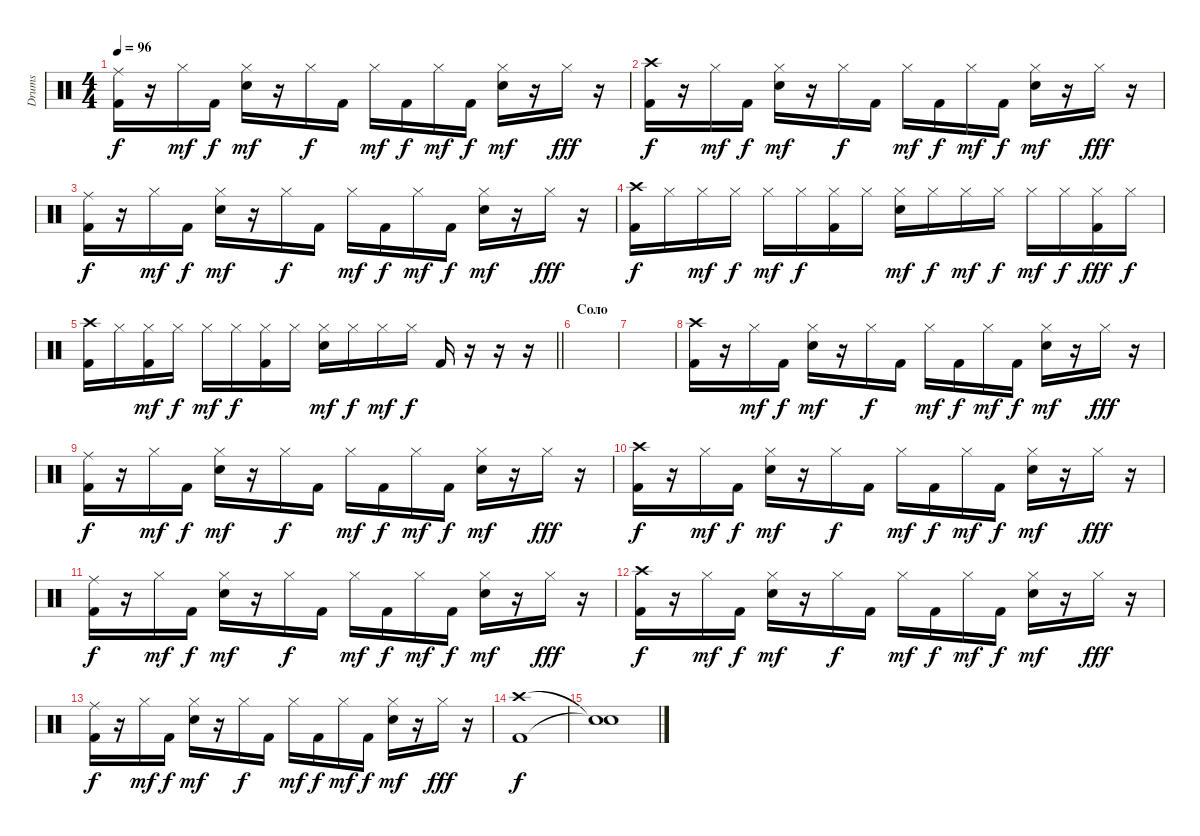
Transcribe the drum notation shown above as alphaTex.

\track ("Drums" "Drums") {instrument percussion}
\staff {score}
\articulation defaults
\ts (4 4)
\tempo 96
\clef neutral
\ks c
("Ride (middle)" "Kick (hit) 2").16{dy f} r.16 "Hi-Hat (closed)".16{dy mf} "Kick (hit) 2".16{dy f} ("Hi-Hat (closed)" "Electric Snare (hit)").16{dy mf} r.16 "Hi-Hat (closed)".16{dy f} "Kick (hit) 2".16 "Hi-Hat (closed)".16{dy mf} "Kick (hit) 2".16{dy f} "Hi-Hat (closed)".16{dy mf} "Kick (hit) 2".16{dy f} ("Hi-Hat (closed)" "Electric Snare (hit)").16{dy mf} r.16 "Hi-Hat (closed)".16{dy fff} r.16 |
("Crash high (hit)" "Kick (hit) 2").16{dy f} r.16 "Hi-Hat (closed)".16{dy mf} "Kick (hit) 2".16{dy f} ("Hi-Hat (closed)" "Electric Snare (hit)").16{dy mf} r.16 "Hi-Hat (closed)".16{dy f} "Kick (hit) 2".16 "Hi-Hat (closed)".16{dy mf} "Kick (hit) 2".16{dy f} "Hi-Hat (closed)".16{dy mf} "Kick (hit) 2".16{dy f} ("Hi-Hat (closed)" "Electric Snare (hit)").16{dy mf} r.16 "Hi-Hat (closed)".16{dy fff} r.16 |
("Ride (middle)" "Kick (hit) 2").16{dy f} r.16 "Hi-Hat (closed)".16{dy mf} "Kick (hit) 2".16{dy f} ("Hi-Hat (closed)" "Electric Snare (hit)").16{dy mf} r.16 "Hi-Hat (closed)".16{dy f} "Kick (hit) 2".16 "Hi-Hat (closed)".16{dy mf} "Kick (hit) 2".16{dy f} "Hi-Hat (closed)".16{dy mf} "Kick (hit) 2".16{dy f} ("Hi-Hat (closed)" "Electric Snare (hit)").16{dy mf} r.16 "Hi-Hat (closed)".16{dy fff} r.16 |
("Crash high (hit)" "Kick (hit) 2").16{dy f} "Hi-Hat (closed)".16 "Hi-Hat (closed)".16{dy mf} "Hi-Hat (closed)".16{dy f} "Hi-Hat (closed)".16{dy mf} "Hi-Hat (closed)".16{dy f} ("Hi-Hat (closed)" "Kick (hit) 2").16 "Hi-Hat (closed)".16 ("Hi-Hat (closed)" "Electric Snare (hit)").16{dy mf} "Hi-Hat (closed)".16{dy f} "Hi-Hat (closed)".16{dy mf} "Hi-Hat (closed)".16{dy f} "Hi-Hat (closed)".16{dy mf} "Hi-Hat (closed)".16{dy f} ("Hi-Hat (closed)" "Kick (hit) 2").16{dy fff} "Hi-Hat (closed)".16{dy f} |
\barLineRight lightlight
("Crash high (hit)" "Kick (hit) 2").16 "Hi-Hat (closed)".16 ("Hi-Hat (closed)" "Kick (hit) 2").16{dy mf} "Hi-Hat (closed)".16{dy f} "Hi-Hat (closed)".16{dy mf} "Hi-Hat (closed)".16{dy f} ("Hi-Hat (closed)" "Kick (hit) 2").16 "Hi-Hat (closed)".16 ("Hi-Hat (closed)" "Electric Snare (hit)").16{dy mf} "Hi-Hat (closed)".16{dy f} "Hi-Hat (closed)".16{dy mf} "Hi-Hat (closed)".16{dy f} "Kick (hit) 2".16 r.16 r.16 r.16 |
\section ("" "Соло")
|
|
("Crash high (hit)" "Kick (hit) 2").16 r.16 "Hi-Hat (closed)".16{dy mf} "Kick (hit) 2".16{dy f} ("Hi-Hat (closed)" "Electric Snare (hit)").16{dy mf} r.16 "Hi-Hat (closed)".16{dy f} "Kick (hit) 2".16 "Hi-Hat (closed)".16{dy mf} "Kick (hit) 2".16{dy f} "Hi-Hat (closed)".16{dy mf} "Kick (hit) 2".16{dy f} ("Hi-Hat (closed)" "Electric Snare (hit)").16{dy mf} r.16 "Hi-Hat (closed)".16{dy fff} r.16 |
("Ride (middle)" "Kick (hit) 2").16{dy f} r.16 "Hi-Hat (closed)".16{dy mf} "Kick (hit) 2".16{dy f} ("Hi-Hat (closed)" "Electric Snare (hit)").16{dy mf} r.16 "Hi-Hat (closed)".16{dy f} "Kick (hit) 2".16 "Hi-Hat (closed)".16{dy mf} "Kick (hit) 2".16{dy f} "Hi-Hat (closed)".16{dy mf} "Kick (hit) 2".16{dy f} ("Hi-Hat (closed)" "Electric Snare (hit)").16{dy mf} r.16 "Hi-Hat (closed)".16{dy fff} r.16 |
("Crash high (hit)" "Kick (hit) 2").16{dy f} r.16 "Hi-Hat (closed)".16{dy mf} "Kick (hit) 2".16{dy f} ("Hi-Hat (closed)" "Electric Snare (hit)").16{dy mf} r.16 "Hi-Hat (closed)".16{dy f} "Kick (hit) 2".16 "Hi-Hat (closed)".16{dy mf} "Kick (hit) 2".16{dy f} "Hi-Hat (closed)".16{dy mf} "Kick (hit) 2".16{dy f} ("Hi-Hat (closed)" "Electric Snare (hit)").16{dy mf} r.16 "Hi-Hat (closed)".16{dy fff} r.16 |
("Ride (middle)" "Kick (hit) 2").16{dy f} r.16 "Hi-Hat (closed)".16{dy mf} "Kick (hit) 2".16{dy f} ("Hi-Hat (closed)" "Electric Snare (hit)").16{dy mf} r.16 "Hi-Hat (closed)".16{dy f} "Kick (hit) 2".16 "Hi-Hat (closed)".16{dy mf} "Kick (hit) 2".16{dy f} "Hi-Hat (closed)".16{dy mf} "Kick (hit) 2".16{dy f} ("Hi-Hat (closed)" "Electric Snare (hit)").16{dy mf} r.16 "Hi-Hat (closed)".16{dy fff} r.16 |
("Crash high (hit)" "Kick (hit) 2").16{dy f} r.16 "Hi-Hat (closed)".16{dy mf} "Kick (hit) 2".16{dy f} ("Hi-Hat (closed)" "Electric Snare (hit)").16{dy mf} r.16 "Hi-Hat (closed)".16{dy f} "Kick (hit) 2".16 "Hi-Hat (closed)".16{dy mf} "Kick (hit) 2".16{dy f} "Hi-Hat (closed)".16{dy mf} "Kick (hit) 2".16{dy f} ("Hi-Hat (closed)" "Electric Snare (hit)").16{dy mf} r.16 "Hi-Hat (closed)".16{dy fff} r.16 |
("Ride (middle)" "Kick (hit) 2").16{dy f} r.16 "Hi-Hat (closed)".16{dy mf} "Kick (hit) 2".16{dy f} ("Hi-Hat (closed)" "Electric Snare (hit)").16{dy mf} r.16 "Hi-Hat (closed)".16{dy f} "Kick (hit) 2".16 "Hi-Hat (closed)".16{dy mf} "Kick (hit) 2".16{dy f} "Hi-Hat (closed)".16{dy mf} "Kick (hit) 2".16{dy f} ("Hi-Hat (closed)" "Electric Snare (hit)").16{dy mf} r.16 "Hi-Hat (closed)".16{dy fff} r.16 |
("Crash high (hit)" "Kick (hit) 2").1{dy f} |
("Snare (hit)"{t} "Snare (hit)"{t}).1
